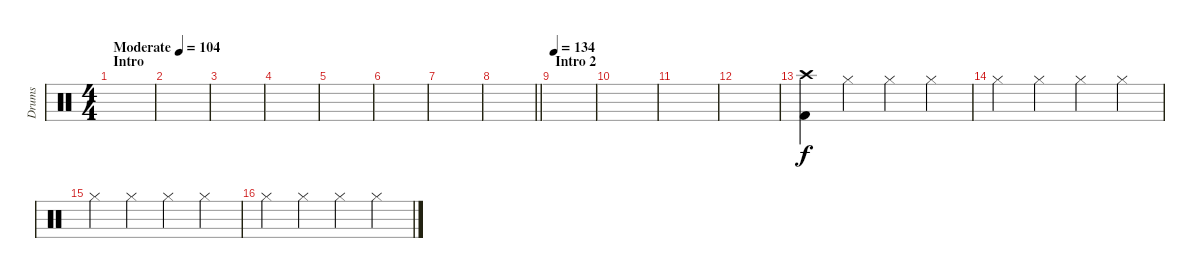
\track ("Drums" "Drums") {instrument percussion}
\staff {score}
\articulation defaults
\ts (4 4)
\section ("" "Intro")
\tempo (104 "Moderate")
\clef neutral
\ks c
|
|
|
|
|
|
|
\barLineRight lightlight
|
\section ("" "Intro 2")
\tempo 134
|
|
|
|
("Crash high (hit)" "Kick (hit) 2").4 "Hi-Hat (closed)".4 "Hi-Hat (closed)".4 "Hi-Hat (closed)".4 |
"Hi-Hat (closed)".4 "Hi-Hat (closed)".4 "Hi-Hat (closed)".4 "Hi-Hat (closed)".4 |
"Hi-Hat (closed)".4 "Hi-Hat (closed)".4 "Hi-Hat (closed)".4 "Hi-Hat (closed)".4 |
"Hi-Hat (closed)".4 "Hi-Hat (closed)".4 "Hi-Hat (closed)".4 "Hi-Hat (closed)".4
